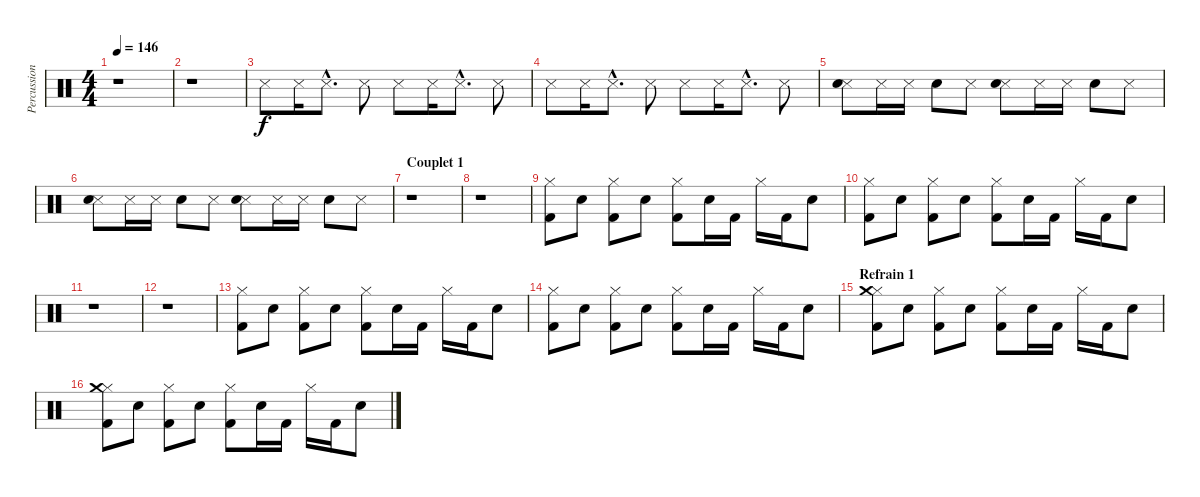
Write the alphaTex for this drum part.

\track ("Percussions" "Percussion") {instrument percussion}
\staff {score}
\articulation defaults
\ts (4 4)
\tempo 146
\clef neutral
\ks c
r.1{dy f} |
r.1 |
"Metronome (hit)".8 "Metronome (hit)".16 "Metronome (hit)"{hac}.8{d} "Metronome (hit)".8 "Metronome (hit)".8 "Metronome (hit)".16 "Metronome (hit)"{hac}.8{d} "Metronome (hit)".8 |
"Metronome (hit)".8 "Metronome (hit)".16 "Metronome (hit)"{hac}.8{d} "Metronome (hit)".8 "Metronome (hit)".8 "Metronome (hit)".16 "Metronome (hit)"{hac}.8{d} "Metronome (hit)".8 |
("Metronome (hit)" "Electric Snare (hit)").8 "Metronome (hit)".16 "Metronome (hit)".16 "Electric Snare (hit)".8 "Metronome (hit)".8 ("Metronome (hit)" "Electric Snare (hit)").8 "Metronome (hit)".16 "Metronome (hit)".16 "Electric Snare (hit)".8 "Metronome (hit)".8 |
("Metronome (hit)" "Electric Snare (hit)").8 "Metronome (hit)".16 "Metronome (hit)".16 "Electric Snare (hit)".8 "Metronome (hit)".8 ("Metronome (hit)" "Electric Snare (hit)").8 "Metronome (hit)".16 "Metronome (hit)".16 "Electric Snare (hit)".8 "Metronome (hit)".8 |
\section ("" "Couplet 1")
r.1 |
r.1 |
("Hi-Hat (closed)" "Kick (hit) 2").8 "Electric Snare (hit)".8 ("Hi-Hat (closed)" "Kick (hit) 2").8 "Electric Snare (hit)".8 ("Hi-Hat (closed)" "Kick (hit) 2").8 "Electric Snare (hit)".16 "Kick (hit) 2".16 "Hi-Hat (closed)".16 "Kick (hit) 2".16 "Electric Snare (hit)".8 |
("Hi-Hat (closed)" "Kick (hit) 2").8 "Electric Snare (hit)".8 ("Hi-Hat (closed)" "Kick (hit) 2").8 "Electric Snare (hit)".8 ("Hi-Hat (closed)" "Kick (hit) 2").8 "Electric Snare (hit)".16 "Kick (hit) 2".16 "Hi-Hat (closed)".16 "Kick (hit) 2".16 "Electric Snare (hit)".8 |
r.1 |
r.1 |
("Hi-Hat (closed)" "Kick (hit) 2").8 "Electric Snare (hit)".8 ("Hi-Hat (closed)" "Kick (hit) 2").8 "Electric Snare (hit)".8 ("Hi-Hat (closed)" "Kick (hit) 2").8 "Electric Snare (hit)".16 "Kick (hit) 2".16 "Hi-Hat (closed)".16 "Kick (hit) 2".16 "Electric Snare (hit)".8 |
("Hi-Hat (closed)" "Kick (hit) 2").8 "Electric Snare (hit)".8 ("Hi-Hat (closed)" "Kick (hit) 2").8 "Electric Snare (hit)".8 ("Hi-Hat (closed)" "Kick (hit) 2").8 "Electric Snare (hit)".16 "Kick (hit) 2".16 "Hi-Hat (closed)".16 "Kick (hit) 2".16 "Electric Snare (hit)".8 |
\section ("" "Refrain 1")
("Hi-Hat (closed)" "Crash medium (hit)" "Kick (hit) 2").8 "Electric Snare (hit)".8 ("Hi-Hat (closed)" "Kick (hit) 2").8 "Electric Snare (hit)".8 ("Hi-Hat (closed)" "Kick (hit) 2").8 "Electric Snare (hit)".16 "Kick (hit) 2".16 "Hi-Hat (closed)".16 "Kick (hit) 2".16 "Electric Snare (hit)".8 |
("Hi-Hat (closed)" "Crash medium (hit)" "Kick (hit) 2").8 "Electric Snare (hit)".8 ("Hi-Hat (closed)" "Kick (hit) 2").8 "Electric Snare (hit)".8 ("Hi-Hat (closed)" "Kick (hit) 2").8 "Electric Snare (hit)".16 "Kick (hit) 2".16 "Hi-Hat (closed)".16 "Kick (hit) 2".16 "Electric Snare (hit)".8
